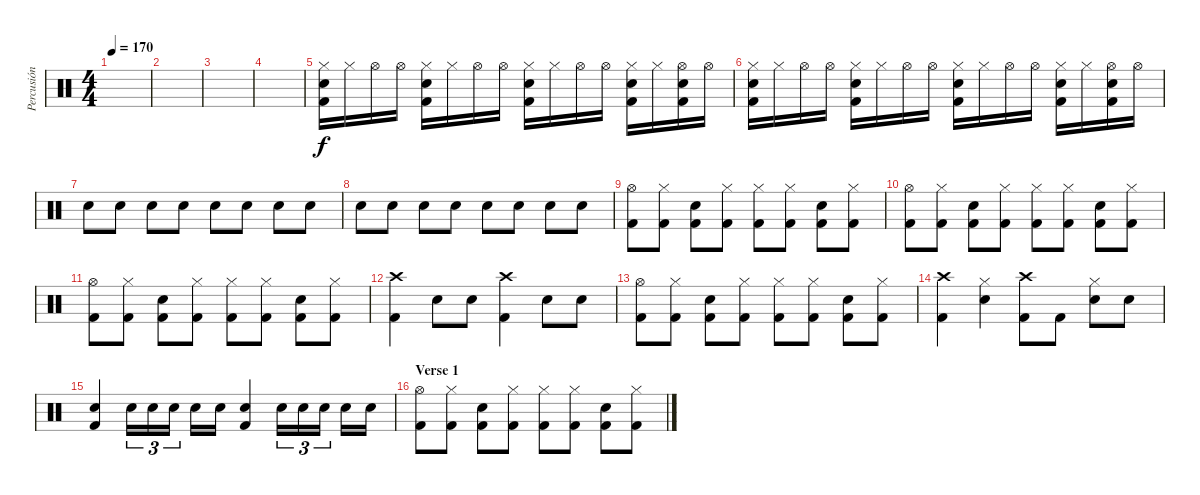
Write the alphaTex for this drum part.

\track ("Percusión" "Percusión") {instrument percussion}
\staff {score}
\articulation defaults
\ts (4 4)
\tempo 170
\clef neutral
\ks c
|
|
|
|
("Hi-Hat (closed)" "Kick (hit) 2" "Snare (hit) 2").16 "Hi-Hat (closed)".16 "Hi-Hat (open)".16 "Hi-Hat (open)".16 ("Hi-Hat (closed)" "Kick (hit) 2" "Snare (hit) 2").16 "Hi-Hat (closed)".16 "Hi-Hat (open)".16 "Hi-Hat (open)".16 ("Hi-Hat (closed)" "Kick (hit) 2" "Snare (hit) 2").16 "Hi-Hat (closed)".16 "Hi-Hat (open)".16 "Hi-Hat (open)".16 ("Hi-Hat (closed)" "Kick (hit) 2" "Snare (hit) 2").16 "Hi-Hat (closed)".16 ("Hi-Hat (open)" "Kick (hit) 2" "Snare (hit) 2").16 "Hi-Hat (open)".16 |
("Hi-Hat (closed)" "Kick (hit) 2" "Snare (hit) 2").16 "Hi-Hat (closed)".16 "Hi-Hat (open)".16 "Hi-Hat (open)".16 ("Hi-Hat (closed)" "Kick (hit) 2" "Snare (hit) 2").16 "Hi-Hat (closed)".16 "Hi-Hat (open)".16 "Hi-Hat (open)".16 ("Hi-Hat (closed)" "Kick (hit) 2" "Snare (hit) 2").16 "Hi-Hat (closed)".16 "Hi-Hat (open)".16 "Hi-Hat (open)".16 ("Hi-Hat (closed)" "Kick (hit) 2" "Snare (hit) 2").16 "Hi-Hat (closed)".16 ("Hi-Hat (open)" "Kick (hit) 2" "Snare (hit) 2").16 "Hi-Hat (open)".16 |
"Snare (hit) 2".8 "Snare (hit) 2".8 "Snare (hit) 2".8 "Snare (hit) 2".8 "Snare (hit) 2".8 "Snare (hit) 2".8 "Snare (hit) 2".8 "Snare (hit) 2".8 |
"Snare (hit) 2".8 "Snare (hit) 2".8 "Snare (hit) 2".8 "Snare (hit) 2".8 "Snare (hit) 2".8 "Snare (hit) 2".8 "Snare (hit) 2".8 "Snare (hit) 2".8 |
("Kick (hit) 2" "Hi-Hat (open)").8 ("Kick (hit) 2" "Hi-Hat (closed)").8 ("Kick (hit) 2" "Snare (hit) 2").8 ("Kick (hit) 2" "Hi-Hat (closed)").8 ("Kick (hit) 2" "Hi-Hat (closed)").8 ("Kick (hit) 2" "Hi-Hat (closed)").8 ("Kick (hit) 2" "Snare (hit) 2").8 ("Kick (hit) 2" "Hi-Hat (closed)").8 |
("Kick (hit) 2" "Hi-Hat (open)").8 ("Kick (hit) 2" "Hi-Hat (closed)").8 ("Kick (hit) 2" "Snare (hit) 2").8 ("Kick (hit) 2" "Hi-Hat (closed)").8 ("Kick (hit) 2" "Hi-Hat (closed)").8 ("Kick (hit) 2" "Hi-Hat (closed)").8 ("Kick (hit) 2" "Snare (hit) 2").8 ("Kick (hit) 2" "Hi-Hat (closed)").8 |
("Kick (hit) 2" "Hi-Hat (open)").8 ("Kick (hit) 2" "Hi-Hat (closed)").8 ("Kick (hit) 2" "Snare (hit) 2").8 ("Kick (hit) 2" "Hi-Hat (closed)").8 ("Kick (hit) 2" "Hi-Hat (closed)").8 ("Kick (hit) 2" "Hi-Hat (closed)").8 ("Kick (hit) 2" "Snare (hit) 2").8 ("Kick (hit) 2" "Hi-Hat (closed)").8 |
("Kick (hit) 2" "Crash high (hit)").4 "Snare (hit) 2".8 "Snare (hit) 2".8 ("Kick (hit) 2" "Crash high (hit)").4 "Snare (hit) 2".8 "Snare (hit) 2".8 |
("Kick (hit) 2" "Hi-Hat (open)").8 ("Kick (hit) 2" "Hi-Hat (closed)").8 ("Kick (hit) 2" "Snare (hit) 2").8 ("Kick (hit) 2" "Hi-Hat (closed)").8 ("Kick (hit) 2" "Hi-Hat (closed)").8 ("Kick (hit) 2" "Hi-Hat (closed)").8 ("Kick (hit) 2" "Snare (hit) 2").8 ("Kick (hit) 2" "Hi-Hat (closed)").8 |
("Kick (hit) 2" "Crash high (hit)").4 ("Snare (hit) 2" "Hi-Hat (closed)").4 ("Kick (hit) 2" "Crash high (hit)").8 "Kick (hit) 2".8 ("Snare (hit) 2" "Hi-Hat (closed)").8 "Snare (hit) 2".8 |
("Kick (hit) 2" "Snare (hit) 2").4 "Snare (hit) 2".16{tu (3 2)} "Snare (hit) 2".16{tu (3 2)} "Snare (hit) 2".16{tu (3 2)} "Snare (hit) 2".16 "Snare (hit) 2".16 ("Kick (hit) 2" "Snare (hit) 2").4 "Snare (hit) 2".16{tu (3 2)} "Snare (hit) 2".16{tu (3 2)} "Snare (hit) 2".16{tu (3 2)} "Snare (hit) 2".16 "Snare (hit) 2".16 |
\section ("" "Verse 1")
("Kick (hit) 2" "Hi-Hat (open)").8 ("Kick (hit) 2" "Hi-Hat (closed)").8 ("Kick (hit) 2" "Snare (hit) 2").8 ("Kick (hit) 2" "Hi-Hat (closed)").8 ("Kick (hit) 2" "Hi-Hat (closed)").8 ("Kick (hit) 2" "Hi-Hat (closed)").8 ("Kick (hit) 2" "Snare (hit) 2").8 ("Kick (hit) 2" "Hi-Hat (closed)").8
